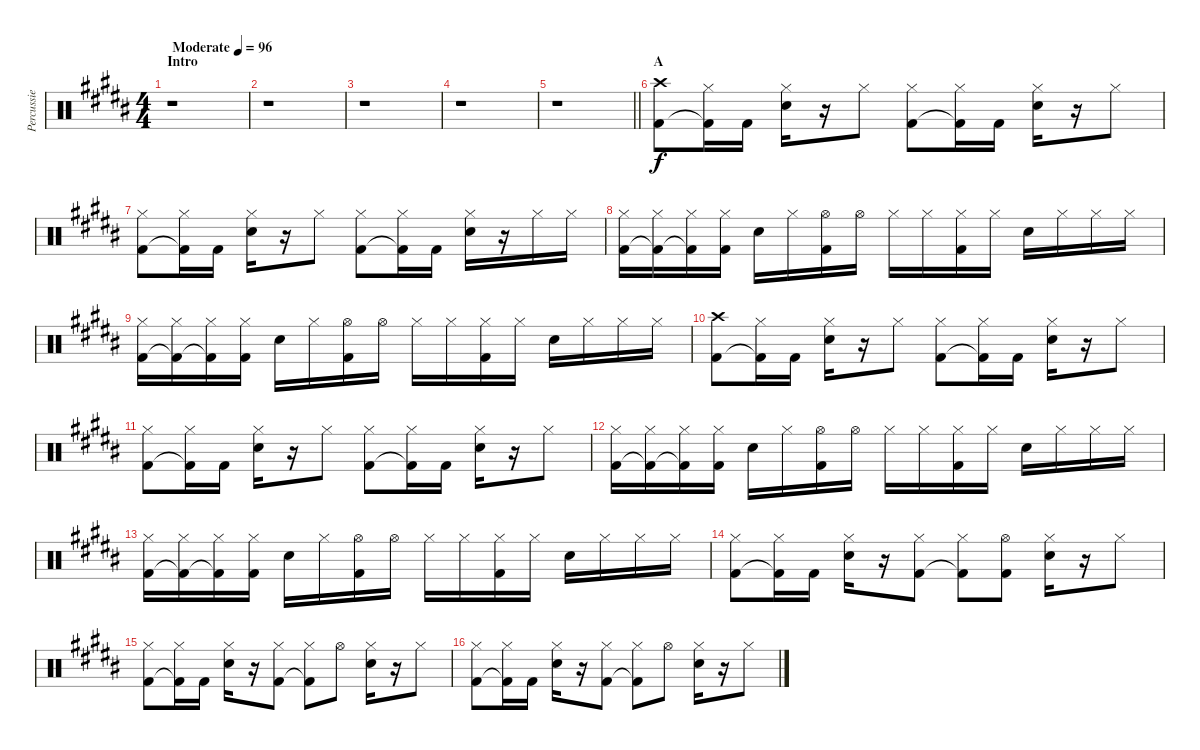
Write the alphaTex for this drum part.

\track ("Percussie" "Percussie") {instrument percussion}
\staff {score}
\articulation defaults
\ts (4 4)
\section ("" "Intro")
\tempo (96 "Moderate")
\clef neutral
\ks b
r.1{dy f} |
r.1 |
r.1 |
r.1 |
\barLineRight lightlight
r.1 |
\section ("" "A")
("Crash high (hit)" "Kick (hit) 2").8 ("Hi-Hat (closed)" "Kick (hit) 2"{t}).16 "Kick (hit) 2".16 ("Hi-Hat (closed)" "Electric Snare (hit)").16 r.16 "Hi-Hat (closed)".8 ("Hi-Hat (closed)" "Kick (hit) 2").8 ("Hi-Hat (closed)" "Kick (hit) 2"{t}).16 "Kick (hit) 2".16 ("Hi-Hat (closed)" "Electric Snare (hit)").16 r.16 "Hi-Hat (closed)".8 |
("Hi-Hat (closed)" "Kick (hit) 2").8 ("Hi-Hat (closed)" "Kick (hit) 2"{t}).16 "Kick (hit) 2".16 ("Hi-Hat (closed)" "Electric Snare (hit)").16 r.16 "Hi-Hat (closed)".8 ("Hi-Hat (closed)" "Kick (hit) 2").8 ("Hi-Hat (closed)" "Kick (hit) 2"{t}).16 "Kick (hit) 2".16 ("Hi-Hat (closed)" "Electric Snare (hit)").16 r.16 "Hi-Hat (closed)".16 "Hi-Hat (closed)".16 |
("Hi-Hat (closed)" "Kick (hit) 2").16 ("Hi-Hat (closed)" "Kick (hit) 2"{t}).16 ("Hi-Hat (closed)" "Kick (hit) 2"{t}).16 ("Hi-Hat (closed)" "Kick (hit) 2").16 "Electric Snare (hit)".16 "Hi-Hat (closed)".16 ("Hi-Hat (open)" "Kick (hit) 2").16 "Hi-Hat (open)".16 "Hi-Hat (closed)".16 "Hi-Hat (closed)".16 ("Hi-Hat (closed)" "Kick (hit) 2").16 "Hi-Hat (closed)".16 "Electric Snare (hit)".16 "Hi-Hat (closed)".16 "Hi-Hat (closed)".16 "Hi-Hat (closed)".16 |
("Hi-Hat (closed)" "Kick (hit) 2").16 ("Hi-Hat (closed)" "Kick (hit) 2"{t}).16 ("Hi-Hat (closed)" "Kick (hit) 2"{t}).16 ("Hi-Hat (closed)" "Kick (hit) 2").16 "Electric Snare (hit)".16 "Hi-Hat (closed)".16 ("Hi-Hat (open)" "Kick (hit) 2").16 "Hi-Hat (open)".16 "Hi-Hat (closed)".16 "Hi-Hat (closed)".16 ("Hi-Hat (closed)" "Kick (hit) 2").16 "Hi-Hat (closed)".16 "Electric Snare (hit)".16 "Hi-Hat (closed)".16 "Hi-Hat (closed)".16 "Hi-Hat (closed)".16 |
("Crash high (hit)" "Kick (hit) 2").8 ("Hi-Hat (closed)" "Kick (hit) 2"{t}).16 "Kick (hit) 2".16 ("Hi-Hat (closed)" "Electric Snare (hit)").16 r.16 "Hi-Hat (closed)".8 ("Hi-Hat (closed)" "Kick (hit) 2").8 ("Hi-Hat (closed)" "Kick (hit) 2"{t}).16 "Kick (hit) 2".16 ("Hi-Hat (closed)" "Electric Snare (hit)").16 r.16 "Hi-Hat (closed)".8 |
("Hi-Hat (closed)" "Kick (hit) 2").8 ("Hi-Hat (closed)" "Kick (hit) 2"{t}).16 "Kick (hit) 2".16 ("Hi-Hat (closed)" "Electric Snare (hit)").16 r.16 "Hi-Hat (closed)".8 ("Hi-Hat (closed)" "Kick (hit) 2").8 ("Hi-Hat (closed)" "Kick (hit) 2"{t}).16 "Kick (hit) 2".16 ("Hi-Hat (closed)" "Electric Snare (hit)").16 r.16 "Hi-Hat (closed)".8 |
("Hi-Hat (closed)" "Kick (hit) 2").16 ("Hi-Hat (closed)" "Kick (hit) 2"{t}).16 ("Hi-Hat (closed)" "Kick (hit) 2"{t}).16 ("Hi-Hat (closed)" "Kick (hit) 2").16 "Electric Snare (hit)".16 "Hi-Hat (closed)".16 ("Hi-Hat (open)" "Kick (hit) 2").16 "Hi-Hat (open)".16 "Hi-Hat (closed)".16 "Hi-Hat (closed)".16 ("Hi-Hat (closed)" "Kick (hit) 2").16 "Hi-Hat (closed)".16 "Electric Snare (hit)".16 "Hi-Hat (closed)".16 "Hi-Hat (closed)".16 "Hi-Hat (closed)".16 |
("Hi-Hat (closed)" "Kick (hit) 2").16 ("Hi-Hat (closed)" "Kick (hit) 2"{t}).16 ("Hi-Hat (closed)" "Kick (hit) 2"{t}).16 ("Hi-Hat (closed)" "Kick (hit) 2").16 "Electric Snare (hit)".16 "Hi-Hat (closed)".16 ("Hi-Hat (open)" "Kick (hit) 2").16 "Hi-Hat (open)".16 "Hi-Hat (closed)".16 "Hi-Hat (closed)".16 ("Hi-Hat (closed)" "Kick (hit) 2").16 "Hi-Hat (closed)".16 "Electric Snare (hit)".16 "Hi-Hat (closed)".16 "Hi-Hat (closed)".16 "Hi-Hat (closed)".16 |
("Hi-Hat (closed)" "Kick (hit) 2").8 ("Hi-Hat (closed)" "Kick (hit) 2"{t}).16 "Kick (hit) 2".16 ("Hi-Hat (closed)" "Electric Snare (hit)").16 r.16 ("Hi-Hat (closed)" "Kick (hit) 2").8 ("Hi-Hat (closed)" "Kick (hit) 2"{t}).8 ("Hi-Hat (open)" "Kick (hit) 2").8 ("Hi-Hat (closed)" "Electric Snare (hit)").16 r.16 "Hi-Hat (closed)".8 |
("Hi-Hat (closed)" "Kick (hit) 2").8 ("Hi-Hat (closed)" "Kick (hit) 2"{t}).16 "Kick (hit) 2".16 ("Hi-Hat (closed)" "Electric Snare (hit)").16 r.16 ("Hi-Hat (closed)" "Kick (hit) 2").8 ("Hi-Hat (closed)" "Kick (hit) 2"{t}).8 "Hi-Hat (open)".8 ("Hi-Hat (closed)" "Electric Snare (hit)").16 r.16 "Hi-Hat (closed)".8 |
("Hi-Hat (closed)" "Kick (hit) 2").8 ("Hi-Hat (closed)" "Kick (hit) 2"{t}).16 "Kick (hit) 2".16 ("Hi-Hat (closed)" "Electric Snare (hit)").16 r.16 ("Hi-Hat (closed)" "Kick (hit) 2").8 ("Hi-Hat (closed)" "Kick (hit) 2"{t}).8 "Hi-Hat (open)".8 ("Hi-Hat (closed)" "Electric Snare (hit)").16 r.16 "Hi-Hat (closed)".8
